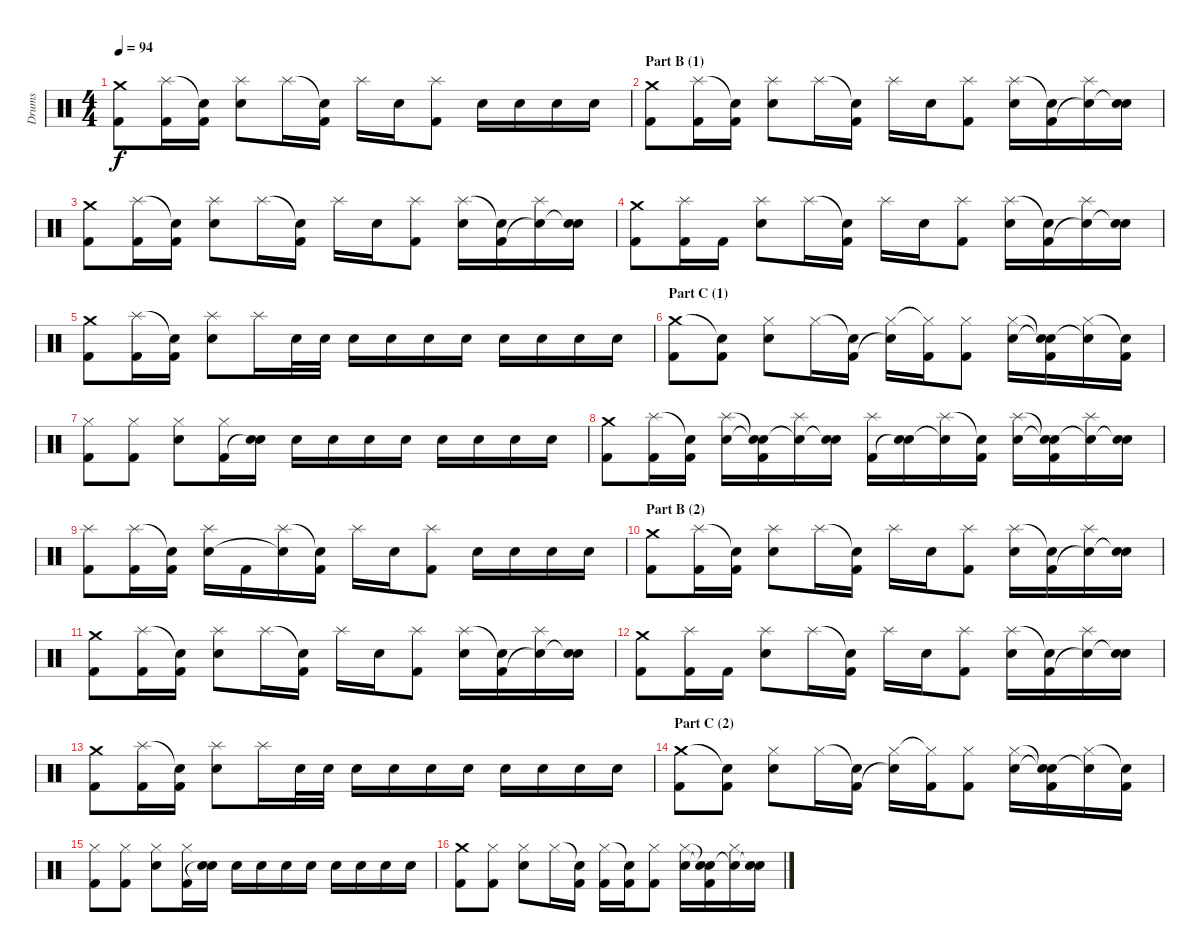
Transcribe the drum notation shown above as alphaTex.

\track ("Drums" "Drums") {instrument percussion}
\staff {score}
\articulation defaults
\ts (4 4)
\tempo 94
\clef neutral
\ks c
("Crash medium (hit)" "Kick (hit) 2").8{dy f} ("Splash (hit)" "Kick (hit) 2").16 ("Snare (hit)"{t} "Kick (hit) 2").16 ("Splash (hit)" "Electric Snare (hit)").8 "Splash (hit)".16 ("Snare (hit)"{t} "Kick (hit) 2").16 "Splash (hit)".16 "Electric Snare (hit)".16 ("Splash (hit)" "Kick (hit) 2").8 "Electric Snare (hit)".16 "Electric Snare (hit)".16 "Electric Snare (hit)".16 "Electric Snare (hit)".16 |
\section ("" "Part B (1)")
("Crash medium (hit)" "Kick (hit) 2").8 ("Splash (hit)" "Kick (hit) 2").16 ("Snare (hit)"{t} "Kick (hit) 2").16 ("Splash (hit)" "Electric Snare (hit)").8 "Splash (hit)".16 ("Snare (hit)"{t} "Kick (hit) 2").16 "Splash (hit)".16 "Electric Snare (hit)".16 ("Splash (hit)" "Kick (hit) 2").8 ("Splash (hit)" "Electric Snare (hit)").16 ("Snare (hit)"{t} "Kick (hit) 2").16 ("Splash (hit)" "Snare (hit)"{t}).16 ("Electric Snare (hit)" "Snare (hit)"{t}).16 |
("Crash medium (hit)" "Kick (hit) 2").8 ("Splash (hit)" "Kick (hit) 2").16 ("Snare (hit)"{t} "Kick (hit) 2").16 ("Splash (hit)" "Electric Snare (hit)").8 "Splash (hit)".16 ("Snare (hit)"{t} "Kick (hit) 2").16 "Splash (hit)".16 "Electric Snare (hit)".16 ("Splash (hit)" "Kick (hit) 2").8 ("Splash (hit)" "Electric Snare (hit)").16 ("Snare (hit)"{t} "Kick (hit) 2").16 ("Splash (hit)" "Snare (hit)"{t}).16 ("Electric Snare (hit)" "Snare (hit)"{t}).16 |
("Crash medium (hit)" "Kick (hit) 2").8 ("Splash (hit)" "Kick (hit) 2").16 "Kick (hit) 2".16 ("Splash (hit)" "Electric Snare (hit)").8 "Splash (hit)".16 ("Snare (hit)"{t} "Kick (hit) 2").16 "Splash (hit)".16 "Electric Snare (hit)".16 ("Splash (hit)" "Kick (hit) 2").8 ("Splash (hit)" "Electric Snare (hit)").16 ("Snare (hit)"{t} "Kick (hit) 2").16 ("Splash (hit)" "Snare (hit)"{t}).16 ("Electric Snare (hit)" "Snare (hit)"{t}).16 |
("Crash medium (hit)" "Kick (hit) 2").8 ("Splash (hit)" "Kick (hit) 2").16 ("Snare (hit)"{t} "Kick (hit) 2").16 ("Splash (hit)" "Electric Snare (hit)").8 "Splash (hit)".16 "Electric Snare (hit)".32 "Electric Snare (hit)".32 "Electric Snare (hit)".16 "Electric Snare (hit)".16 "Electric Snare (hit)".16 "Electric Snare (hit)".16 "Electric Snare (hit)".16 "Electric Snare (hit)".16 "Electric Snare (hit)".16 "Electric Snare (hit)".16 |
\section ("" "Part C (1)")
("Crash medium (hit)" "Kick (hit) 2").8 ("Snare (hit)"{t} "Kick (hit) 2").8 ("Hi-Hat (closed)" "Electric Snare (hit)").8 "Hi-Hat (closed)".16 ("Snare (hit)"{t} "Kick (hit) 2").16 ("Hi-Hat (closed)" "Snare (hit)"{t}).16 ("Hi-Hat (closed)"{t} "Kick (hit) 2").16 ("Hi-Hat (closed)" "Kick (hit) 2").8 ("Hi-Hat (closed)" "Electric Snare (hit)").16 ("Snare (hit)"{t} "Snare (hit)"{t} "Kick (hit) 2").16 ("Hi-Hat (closed)" "Snare (hit)"{t}).16 ("Snare (hit)"{t} "Kick (hit) 2").16 |
("Hi-Hat (closed)" "Kick (hit) 2").8 ("Hi-Hat (closed)" "Kick (hit) 2").8 ("Hi-Hat (closed)" "Electric Snare (hit)").8 ("Hi-Hat (closed)" "Kick (hit) 2").16 ("Electric Snare (hit)" "Snare (hit)"{t}).16 "Electric Snare (hit)".16 "Electric Snare (hit)".16 "Electric Snare (hit)".16 "Electric Snare (hit)".16 "Electric Snare (hit)".16 "Electric Snare (hit)".16 "Electric Snare (hit)".16 "Electric Snare (hit)".16 |
("Crash medium (hit)" "Kick (hit) 2").8 ("Splash (hit)" "Kick (hit) 2").16 ("Snare (hit)"{t} "Kick (hit) 2").16 ("Splash (hit)" "Electric Snare (hit)").16 ("Snare (hit)"{t} "Snare (hit)"{t} "Kick (hit) 2").16 ("Splash (hit)" "Snare (hit)"{t}).16 ("Electric Snare (hit)" "Snare (hit)"{t}).16 ("Splash (hit)" "Kick (hit) 2").16 ("Electric Snare (hit)" "Snare (hit)"{t}).16 ("Splash (hit)" "Snare (hit)"{t}).16 ("Snare (hit)"{t} "Kick (hit) 2").16 ("Splash (hit)" "Electric Snare (hit)").16 ("Snare (hit)"{t} "Snare (hit)"{t} "Kick (hit) 2").16 ("Splash (hit)" "Snare (hit)"{t}).16 ("Electric Snare (hit)" "Snare (hit)"{t}).16 |
("Splash (hit)" "Kick (hit) 2").8 ("Splash (hit)" "Kick (hit) 2").16 ("Snare (hit)"{t} "Kick (hit) 2").16 ("Splash (hit)" "Electric Snare (hit)").16 "Kick (hit) 2".16 ("Splash (hit)" "Snare (hit)"{t}).16 ("Snare (hit)"{t} "Kick (hit) 2").16 "Splash (hit)".16 "Electric Snare (hit)".16 ("Splash (hit)" "Kick (hit) 2").8 "Electric Snare (hit)".16 "Electric Snare (hit)".16 "Electric Snare (hit)".16 "Electric Snare (hit)".16 |
\section ("" "Part B (2)")
("Crash medium (hit)" "Kick (hit) 2").8 ("Splash (hit)" "Kick (hit) 2").16 ("Snare (hit)"{t} "Kick (hit) 2").16 ("Splash (hit)" "Electric Snare (hit)").8 "Splash (hit)".16 ("Snare (hit)"{t} "Kick (hit) 2").16 "Splash (hit)".16 "Electric Snare (hit)".16 ("Splash (hit)" "Kick (hit) 2").8 ("Splash (hit)" "Electric Snare (hit)").16 ("Snare (hit)"{t} "Kick (hit) 2").16 ("Splash (hit)" "Snare (hit)"{t}).16 ("Electric Snare (hit)" "Snare (hit)"{t}).16 |
("Crash medium (hit)" "Kick (hit) 2").8 ("Splash (hit)" "Kick (hit) 2").16 ("Snare (hit)"{t} "Kick (hit) 2").16 ("Splash (hit)" "Electric Snare (hit)").8 "Splash (hit)".16 ("Snare (hit)"{t} "Kick (hit) 2").16 "Splash (hit)".16 "Electric Snare (hit)".16 ("Splash (hit)" "Kick (hit) 2").8 ("Splash (hit)" "Electric Snare (hit)").16 ("Snare (hit)"{t} "Kick (hit) 2").16 ("Splash (hit)" "Snare (hit)"{t}).16 ("Electric Snare (hit)" "Snare (hit)"{t}).16 |
("Crash medium (hit)" "Kick (hit) 2").8 ("Splash (hit)" "Kick (hit) 2").16 "Kick (hit) 2".16 ("Splash (hit)" "Electric Snare (hit)").8 "Splash (hit)".16 ("Snare (hit)"{t} "Kick (hit) 2").16 "Splash (hit)".16 "Electric Snare (hit)".16 ("Splash (hit)" "Kick (hit) 2").8 ("Splash (hit)" "Electric Snare (hit)").16 ("Snare (hit)"{t} "Kick (hit) 2").16 ("Splash (hit)" "Snare (hit)"{t}).16 ("Electric Snare (hit)" "Snare (hit)"{t}).16 |
("Crash medium (hit)" "Kick (hit) 2").8 ("Splash (hit)" "Kick (hit) 2").16 ("Snare (hit)"{t} "Kick (hit) 2").16 ("Splash (hit)" "Electric Snare (hit)").8 "Splash (hit)".16 "Electric Snare (hit)".32 "Electric Snare (hit)".32 "Electric Snare (hit)".16 "Electric Snare (hit)".16 "Electric Snare (hit)".16 "Electric Snare (hit)".16 "Electric Snare (hit)".16 "Electric Snare (hit)".16 "Electric Snare (hit)".16 "Electric Snare (hit)".16 |
\section ("" "Part C (2)")
("Crash medium (hit)" "Kick (hit) 2").8 ("Snare (hit)"{t} "Kick (hit) 2").8 ("Hi-Hat (closed)" "Electric Snare (hit)").8 "Hi-Hat (closed)".16 ("Snare (hit)"{t} "Kick (hit) 2").16 ("Hi-Hat (closed)" "Snare (hit)"{t}).16 ("Hi-Hat (closed)"{t} "Kick (hit) 2").16 ("Hi-Hat (closed)" "Kick (hit) 2").8 ("Hi-Hat (closed)" "Electric Snare (hit)").16 ("Snare (hit)"{t} "Snare (hit)"{t} "Kick (hit) 2").16 ("Hi-Hat (closed)" "Snare (hit)"{t}).16 ("Snare (hit)"{t} "Kick (hit) 2").16 |
("Hi-Hat (closed)" "Kick (hit) 2").8 ("Hi-Hat (closed)" "Kick (hit) 2").8 ("Hi-Hat (closed)" "Electric Snare (hit)").8 ("Hi-Hat (closed)" "Kick (hit) 2").16 ("Electric Snare (hit)" "Snare (hit)"{t}).16 "Electric Snare (hit)".16 "Electric Snare (hit)".16 "Electric Snare (hit)".16 "Electric Snare (hit)".16 "Electric Snare (hit)".16 "Electric Snare (hit)".16 "Electric Snare (hit)".16 "Electric Snare (hit)".16 |
("Crash medium (hit)" "Kick (hit) 2").8 ("Hi-Hat (closed)" "Kick (hit) 2").8 ("Hi-Hat (closed)" "Electric Snare (hit)").8 "Hi-Hat (closed)".16 ("Snare (hit)"{t} "Kick (hit) 2").16 ("Hi-Hat (closed)" "Kick (hit) 2").16 ("Snare (hit)"{t} "Kick (hit) 2").16 ("Hi-Hat (closed)" "Kick (hit) 2").8 ("Hi-Hat (closed)" "Electric Snare (hit)").16 ("Snare (hit)"{t} "Snare (hit)"{t} "Kick (hit) 2").16 ("Hi-Hat (closed)" "Snare (hit)"{t}).16 ("Electric Snare (hit)" "Snare (hit)"{t}).16
